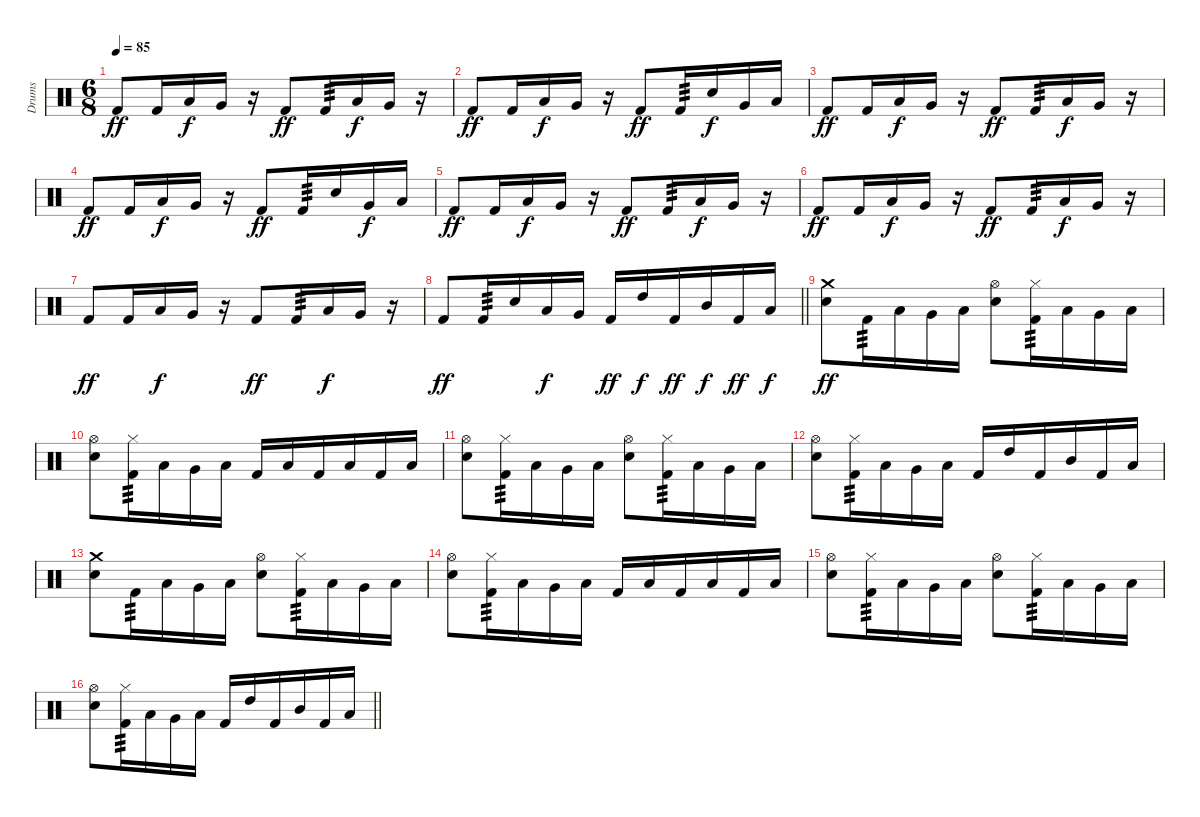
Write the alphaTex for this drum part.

\track ("Drums" "Drums") {instrument percussion}
\staff {score}
\articulation defaults
\ts (6 8)
\section ("" "")
\tempo 85
\clef neutral
\ks c "Kick (hit) 2".8{dy ff} "Kick (hit) 2".16 "Low Tom (hit)".16{dy f} "Very Low Tom (hit)".16
r.16 "Kick (hit) 2".8{dy ff} "Kick (hit) 2".16{tp 3} "Low Tom (hit)".16{dy f} "Very Low Tom (hit)".16 r.16 |
"Kick (hit) 2".8{dy ff} "Kick (hit) 2".16 "Low Tom (hit)".16{dy f} "Very Low Tom (hit)".16 r.16 "Kick (hit) 2".8{dy ff} "Kick (hit) 2".16{tp 3} "Snare (hit) 2".16{dy f} "Very Low Tom (hit)".16 "Low Floor Tom (hit)".16 |
"Kick (hit) 2".8{dy ff} "Kick (hit) 2".16 "Low Tom (hit)".16{dy f} "Very Low Tom (hit)".16 r.16 "Kick (hit) 2".8{dy ff} "Kick (hit) 2".16{tp 3} "Low Tom (hit)".16{dy f} "Very Low Tom (hit)".16 r.16 |
"Kick (hit) 2".8{dy ff} "Kick (hit) 2".16 "Low Tom (hit)".16{dy f} "Very Low Tom (hit)".16 r.16 "Kick (hit) 2".8{dy ff} "Kick (hit) 2".16{tp 3} "Snare (hit) 2".16 "Very Low Tom (hit)".16{dy f} "Low Floor Tom (hit)".16 |
"Kick (hit) 2".8{dy ff} "Kick (hit) 2".16 "Low Tom (hit)".16{dy f} "Very Low Tom (hit)".16 r.16 "Kick (hit) 2".8{dy ff} "Kick (hit) 2".16{tp 3} "Low Tom (hit)".16{dy f} "Very Low Tom (hit)".16 r.16 |
"Kick (hit) 2".8{dy ff} "Kick (hit) 2".16 "Low Tom (hit)".16{dy f} "Very Low Tom (hit)".16 r.16 "Kick (hit) 2".8{dy ff} "Kick (hit) 2".16{tp 3} "Low Tom (hit)".16{dy f} "Very Low Tom (hit)".16 r.16 |
"Kick (hit) 2".8{dy ff} "Kick (hit) 2".16 "Low Tom (hit)".16{dy f} "Very Low Tom (hit)".16 r.16 "Kick (hit) 2".8{dy ff} "Kick (hit) 2".16{tp 3} "Low Tom (hit)".16{dy f} "Very Low Tom (hit)".16 r.16 |
\barLineRight lightlight "Kick (hit) 2".8{dy ff} "Kick (hit) 2".16{tp 3} "Snare (hit) 2".16 "Low Tom (hit)".16{dy f} "Very Low Tom (hit)".16 "Kick (hit) 2".16{dy ff} "High Tom (hit)".16{dy f} "Kick (hit) 2".16{dy ff} "Mid Tom (hit)".16{dy f} "Kick (hit) 2".16{dy ff} "Low Tom (hit)".16{dy f}
|
\section ("" "")
("Crash medium (hit)" "Snare (hit) 2").8{dy ff} "Kick (hit) 2".16{tp 3} "Low Tom (hit)".16 "Very Low Tom (hit)".16 "Low Floor Tom (hit)".16 ("Hi-Hat (open)" "Snare (hit) 2").8 ("Hi-Hat (closed)" "Kick (hit) 2").16{tp 3} "Low Tom (hit)".16 "Very Low Tom (hit)".16 "Low Floor Tom (hit)".16 |
("Hi-Hat (open)" "Snare (hit) 2").8 ("Hi-Hat (closed)" "Kick (hit) 2").16{tp 3} "Low Tom (hit)".16 "Very Low Tom (hit)".16 "Low Floor Tom (hit)".16 "Kick (hit) 2".16 "Low Tom (hit)".16 "Kick (hit) 2".16 "Low Tom (hit)".16 "Kick (hit) 2".16 "Low Tom (hit)".16 |
("Hi-Hat (open)" "Snare (hit) 2").8 ("Hi-Hat (closed)" "Kick (hit) 2").16{tp 3} "Low Tom (hit)".16 "Very Low Tom (hit)".16 "Low Floor Tom (hit)".16 ("Hi-Hat (open)" "Snare (hit) 2").8 ("Hi-Hat (closed)" "Kick (hit) 2").16{tp 3} "Low Tom (hit)".16 "Very Low Tom (hit)".16 "Low Floor Tom (hit)".16 |
("Hi-Hat (open)" "Snare (hit) 2").8 ("Hi-Hat (closed)" "Kick (hit) 2").16{tp 3} "Low Tom (hit)".16 "Very Low Tom (hit)".16 "Low Floor Tom (hit)".16 "Kick (hit) 2".16 "High Tom (hit)".16 "Kick (hit) 2".16 "Mid Tom (hit)".16 "Kick (hit) 2".16 "Low Tom (hit)".16 |
("Crash medium (hit)" "Snare (hit) 2").8 "Kick (hit) 2".16{tp 3} "Low Tom (hit)".16 "Very Low Tom (hit)".16 "Low Floor Tom (hit)".16 ("Hi-Hat (open)" "Snare (hit) 2").8 ("Hi-Hat (closed)" "Kick (hit) 2").16{tp 3} "Low Tom (hit)".16 "Very Low Tom (hit)".16 "Low Floor Tom (hit)".16 |
("Hi-Hat (open)" "Snare (hit) 2").8 ("Hi-Hat (closed)" "Kick (hit) 2").16{tp 3} "Low Tom (hit)".16 "Very Low Tom (hit)".16 "Low Floor Tom (hit)".16 "Kick (hit) 2".16 "Low Tom (hit)".16 "Kick (hit) 2".16 "Low Tom (hit)".16 "Kick (hit) 2".16 "Low Tom (hit)".16 |
("Hi-Hat (open)" "Snare (hit) 2").8 ("Hi-Hat (closed)" "Kick (hit) 2").16{tp 3} "Low Tom (hit)".16 "Very Low Tom (hit)".16 "Low Floor Tom (hit)".16 ("Hi-Hat (open)" "Snare (hit) 2").8 ("Hi-Hat (closed)" "Kick (hit) 2").16{tp 3} "Low Tom (hit)".16 "Very Low Tom (hit)".16 "Low Floor Tom (hit)".16 |
\barLineRight lightlight
("Hi-Hat (open)" "Snare (hit) 2").8 ("Hi-Hat (closed)" "Kick (hit) 2").16{tp 3} "Low Tom (hit)".16 "Very Low Tom (hit)".16 "Low Floor Tom (hit)".16 "Kick (hit) 2".16 "High Tom (hit)".16 "Kick (hit) 2".16 "Mid Tom (hit)".16 "Kick (hit) 2".16 "Low Tom (hit)".16
